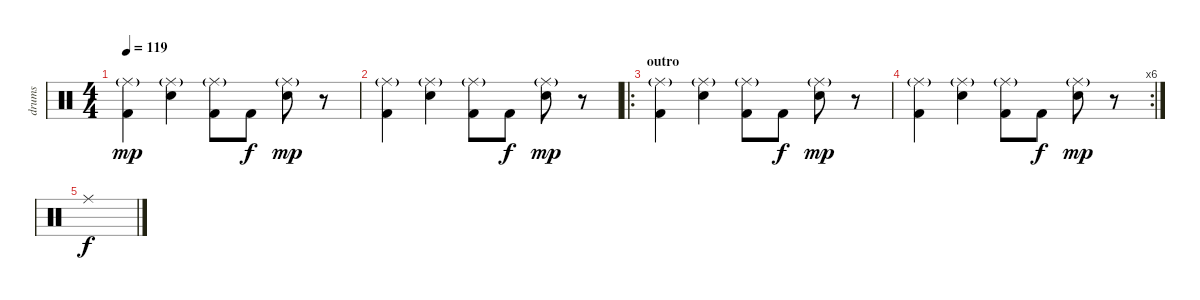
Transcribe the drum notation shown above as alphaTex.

\track ("drums" "drums") {instrument percussion}
\staff {score}
\articulation defaults
\ts (4 4)
\tempo 119
\clef neutral
\ks c
("Kick (hit) 2" "Ride (middle)"{g}).4{dy mp} ("Electric Snare (hit)" "Ride (middle)"{g}).4 ("Kick (hit) 2" "Ride (middle)"{g}).8 "Kick (hit) 2".8{dy f} ("Electric Snare (hit)" "Ride (middle)"{g}).8{dy mp} r.8 |
("Kick (hit) 2" "Ride (middle)"{g}).4 ("Electric Snare (hit)" "Ride (middle)"{g}).4 ("Kick (hit) 2" "Ride (middle)"{g}).8 "Kick (hit) 2".8{dy f} ("Electric Snare (hit)" "Ride (middle)"{g}).8{dy mp} r.8 |
\ro
\section ("" "outro")
("Kick (hit) 2" "Ride (middle)"{g}).4 ("Electric Snare (hit)" "Ride (middle)"{g}).4 ("Kick (hit) 2" "Ride (middle)"{g}).8 "Kick (hit) 2".8{dy f} ("Electric Snare (hit)" "Ride (middle)"{g}).8{dy mp} r.8 |
\rc 6
("Kick (hit) 2" "Ride (middle)"{g}).4 ("Electric Snare (hit)" "Ride (middle)"{g}).4 ("Kick (hit) 2" "Ride (middle)"{g}).8 "Kick (hit) 2".8{dy f} ("Electric Snare (hit)" "Ride (middle)"{g}).8{dy mp} r.8 |
"Ride (middle)".1{dy f}
